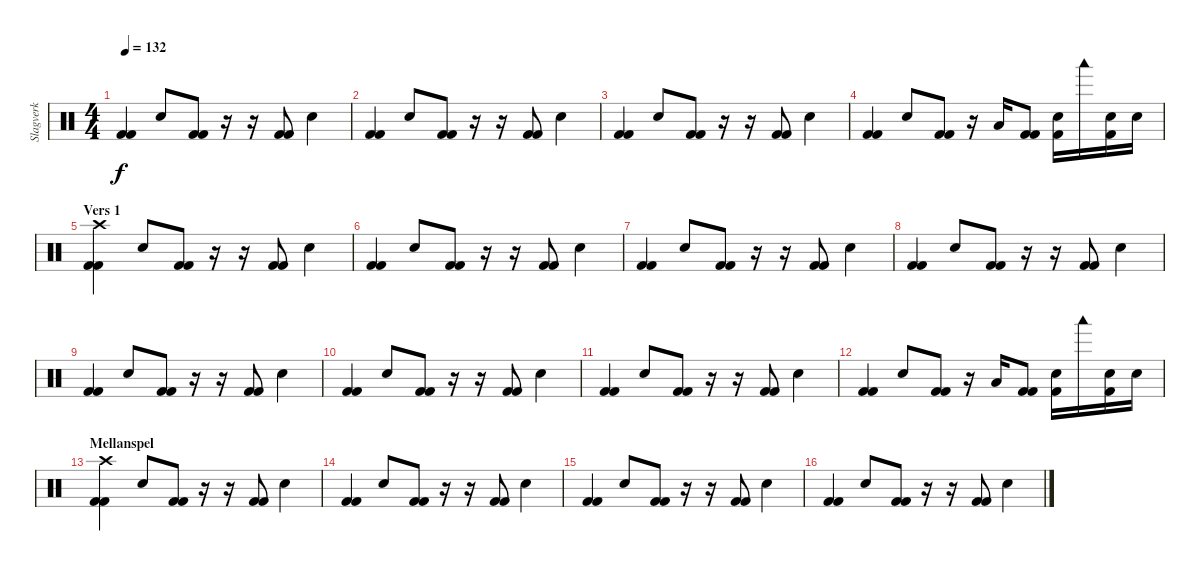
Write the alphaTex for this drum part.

\track ("Slagverk" "Slagverk") {instrument percussion}
\staff {score}
\articulation defaults
\ts (4 4)
\tempo 132
\clef neutral
\ks c
("Kick (hit) 2" "Kick (hit) 2").4{dy f} "Electric Snare (hit)".8 ("Kick (hit) 2" "Kick (hit) 2").8 r.16 r.16 ("Kick (hit) 2" "Kick (hit) 2").8 "Electric Snare (hit)".4 |
("Kick (hit) 2" "Kick (hit) 2").4 "Electric Snare (hit)".8 ("Kick (hit) 2" "Kick (hit) 2").8 r.16 r.16 ("Kick (hit) 2" "Kick (hit) 2").8 "Electric Snare (hit)".4 |
("Kick (hit) 2" "Kick (hit) 2").4 "Electric Snare (hit)".8 ("Kick (hit) 2" "Kick (hit) 2").8 r.16 r.16 ("Kick (hit) 2" "Kick (hit) 2").8 "Electric Snare (hit)".4 |
("Kick (hit) 2" "Kick (hit) 2").4 "Electric Snare (hit)".8 ("Kick (hit) 2" "Kick (hit) 2").8 r.16 "Low Tom (hit)".16 ("Kick (hit) 2" "Kick (hit) 2").8 ("Electric Snare (hit)" "Kick (hit) 2").16 "Woodblock low (hit)".16 ("Electric Snare (hit)" "Kick (hit) 2").16 "Electric Snare (hit)".16 |
\section ("" "Vers 1")
("Kick (hit) 2" "Kick (hit) 2" "Crash high (hit)").4 "Electric Snare (hit)".8 ("Kick (hit) 2" "Kick (hit) 2").8 r.16 r.16 ("Kick (hit) 2" "Kick (hit) 2").8 "Electric Snare (hit)".4 |
("Kick (hit) 2" "Kick (hit) 2").4 "Electric Snare (hit)".8 ("Kick (hit) 2" "Kick (hit) 2").8 r.16 r.16 ("Kick (hit) 2" "Kick (hit) 2").8 "Electric Snare (hit)".4 |
("Kick (hit) 2" "Kick (hit) 2").4 "Electric Snare (hit)".8 ("Kick (hit) 2" "Kick (hit) 2").8 r.16 r.16 ("Kick (hit) 2" "Kick (hit) 2").8 "Electric Snare (hit)".4 |
("Kick (hit) 2" "Kick (hit) 2").4 "Electric Snare (hit)".8 ("Kick (hit) 2" "Kick (hit) 2").8 r.16 r.16 ("Kick (hit) 2" "Kick (hit) 2").8 "Electric Snare (hit)".4 |
("Kick (hit) 2" "Kick (hit) 2").4 "Electric Snare (hit)".8 ("Kick (hit) 2" "Kick (hit) 2").8 r.16 r.16 ("Kick (hit) 2" "Kick (hit) 2").8 "Electric Snare (hit)".4 |
("Kick (hit) 2" "Kick (hit) 2").4 "Electric Snare (hit)".8 ("Kick (hit) 2" "Kick (hit) 2").8 r.16 r.16 ("Kick (hit) 2" "Kick (hit) 2").8 "Electric Snare (hit)".4 |
("Kick (hit) 2" "Kick (hit) 2").4 "Electric Snare (hit)".8 ("Kick (hit) 2" "Kick (hit) 2").8 r.16 r.16 ("Kick (hit) 2" "Kick (hit) 2").8 "Electric Snare (hit)".4 |
("Kick (hit) 2" "Kick (hit) 2").4 "Electric Snare (hit)".8 ("Kick (hit) 2" "Kick (hit) 2").8 r.16 "Low Tom (hit)".16 ("Kick (hit) 2" "Kick (hit) 2").8 ("Electric Snare (hit)" "Kick (hit) 2").16 "Woodblock low (hit)".16 ("Electric Snare (hit)" "Kick (hit) 2").16 "Electric Snare (hit)".16 |
\section ("" "Mellanspel")
("Kick (hit) 2" "Kick (hit) 2" "Crash high (hit)").4 "Electric Snare (hit)".8 ("Kick (hit) 2" "Kick (hit) 2").8 r.16 r.16 ("Kick (hit) 2" "Kick (hit) 2").8 "Electric Snare (hit)".4 |
("Kick (hit) 2" "Kick (hit) 2").4 "Electric Snare (hit)".8 ("Kick (hit) 2" "Kick (hit) 2").8 r.16 r.16 ("Kick (hit) 2" "Kick (hit) 2").8 "Electric Snare (hit)".4 |
("Kick (hit) 2" "Kick (hit) 2").4 "Electric Snare (hit)".8 ("Kick (hit) 2" "Kick (hit) 2").8 r.16 r.16 ("Kick (hit) 2" "Kick (hit) 2").8 "Electric Snare (hit)".4 |
("Kick (hit) 2" "Kick (hit) 2").4 "Electric Snare (hit)".8 ("Kick (hit) 2" "Kick (hit) 2").8 r.16 r.16 ("Kick (hit) 2" "Kick (hit) 2").8 "Electric Snare (hit)".4
